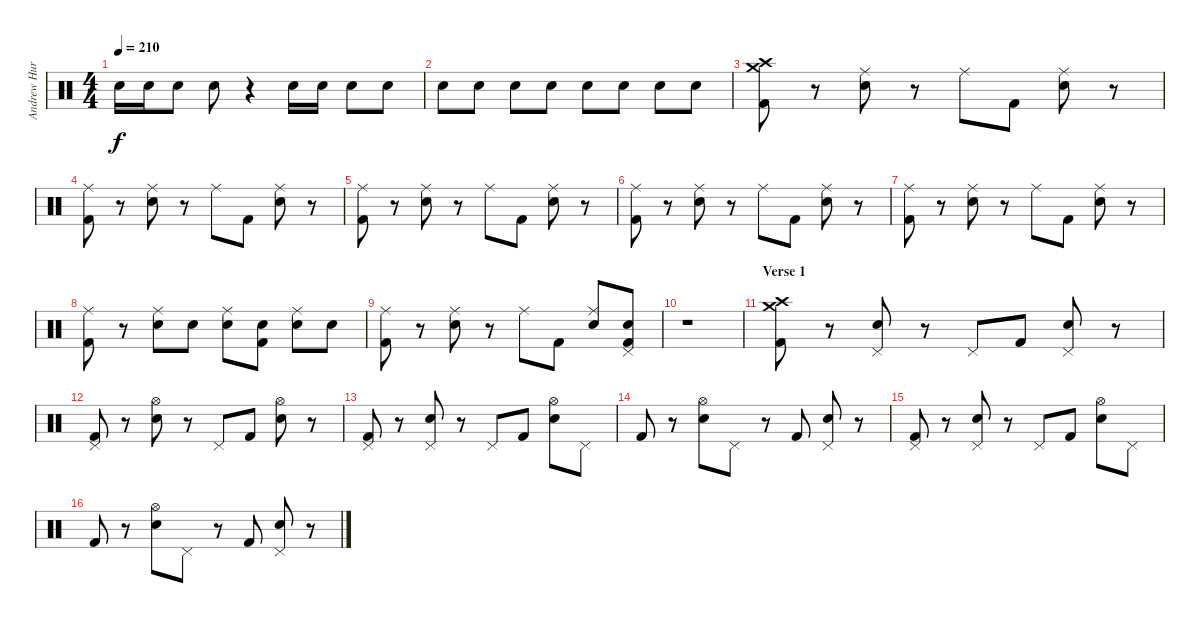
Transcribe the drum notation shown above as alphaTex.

\track ("Andrew Hurley (Drums)" "Andrew Hur") {instrument percussion}
\staff {score}
\articulation defaults
\ts (4 4)
\tempo 210
\clef neutral
\ks c "Electric Snare (hit)".16{dy f} "Electric Snare (hit)".16 "Electric Snare (hit)".8 "Electric Snare (hit)".8
r.4 "Electric Snare (hit)".16 "Electric Snare (hit)".16 "Electric Snare (hit)".8 "Electric Snare (hit)".8 |
"Electric Snare (hit)".8 "Electric Snare (hit)".8 "Electric Snare (hit)".8 "Electric Snare (hit)".8 "Electric Snare (hit)".8 "Electric Snare (hit)".8 "Electric Snare (hit)".8 "Electric Snare (hit)".8 |
("Crash medium (hit)" "Crash high (hit)" "Kick (hit) 2").8 r.8 ("Ride (middle)" "Electric Snare (hit)").8 r.8 "Ride (middle)".8 "Kick (hit) 2".8 ("Ride (middle)" "Electric Snare (hit)").8 r.8 |
("Ride (middle)" "Kick (hit) 2").8 r.8 ("Ride (middle)" "Electric Snare (hit)").8 r.8 "Ride (middle)".8 "Kick (hit) 2".8 ("Ride (middle)" "Electric Snare (hit)").8 r.8 |
("Ride (middle)" "Kick (hit) 2").8 r.8 ("Ride (middle)" "Electric Snare (hit)").8 r.8 "Ride (middle)".8 "Kick (hit) 2".8 ("Ride (middle)" "Electric Snare (hit)").8 r.8 |
("Ride (middle)" "Kick (hit) 2").8 r.8 ("Ride (middle)" "Electric Snare (hit)").8 r.8 "Ride (middle)".8 "Kick (hit) 2".8 ("Ride (middle)" "Electric Snare (hit)").8 r.8 |
("Ride (middle)" "Kick (hit) 2").8 r.8 ("Ride (middle)" "Electric Snare (hit)").8 r.8 "Ride (middle)".8 "Kick (hit) 2".8 ("Ride (middle)" "Electric Snare (hit)").8 r.8 |
("Ride (middle)" "Kick (hit) 2").8 r.8 ("Ride (middle)" "Electric Snare (hit)").8 "Electric Snare (hit)".8 ("Ride (middle)" "Electric Snare (hit)").8 ("Electric Snare (hit)" "Kick (hit) 2").8 ("Ride (middle)" "Electric Snare (hit)").8 "Electric Snare (hit)".8 |
("Ride (middle)" "Kick (hit) 2").8 r.8 ("Ride (middle)" "Electric Snare (hit)").8 r.8 "Ride (middle)".8 "Kick (hit) 2".8 ("Ride (middle)" "Electric Snare (hit)").8 ("Pedal Hi-Hat (hit)" "Electric Snare (hit)" "Kick (hit) 2").8 |
r.1 |
\section ("" "Verse 1")
("Crash high (hit)" "Crash medium (hit)" "Kick (hit) 2").8 r.8 ("Pedal Hi-Hat (hit)" "Electric Snare (hit)").8 r.8 "Pedal Hi-Hat (hit)".8 "Kick (hit) 2".8 ("Pedal Hi-Hat (hit)" "Electric Snare (hit)").8 r.8 |
("Pedal Hi-Hat (hit)" "Kick (hit) 2").8 r.8 ("Hi-Hat (open)" "Electric Snare (hit)").8 r.8 "Pedal Hi-Hat (hit)".8 "Kick (hit) 2".8 ("Hi-Hat (open)" "Electric Snare (hit)").8 r.8 |
("Pedal Hi-Hat (hit)" "Kick (hit) 2").8 r.8 ("Pedal Hi-Hat (hit)" "Electric Snare (hit)").8 r.8 "Pedal Hi-Hat (hit)".8 "Kick (hit) 2".8 ("Hi-Hat (open)" "Electric Snare (hit)").8 "Pedal Hi-Hat (hit)".8 |
"Kick (hit) 2".8 r.8 ("Hi-Hat (open)" "Electric Snare (hit)").8 "Pedal Hi-Hat (hit)".8 r.8 "Kick (hit) 2".8 ("Pedal Hi-Hat (hit)" "Electric Snare (hit)").8 r.8 |
("Pedal Hi-Hat (hit)" "Kick (hit) 2").8 r.8 ("Pedal Hi-Hat (hit)" "Electric Snare (hit)").8 r.8 "Pedal Hi-Hat (hit)".8 "Kick (hit) 2".8 ("Hi-Hat (open)" "Electric Snare (hit)").8 "Pedal Hi-Hat (hit)".8 |
"Kick (hit) 2".8 r.8 ("Hi-Hat (open)" "Electric Snare (hit)").8 "Pedal Hi-Hat (hit)".8 r.8 "Kick (hit) 2".8 ("Pedal Hi-Hat (hit)" "Electric Snare (hit)").8 r.8
